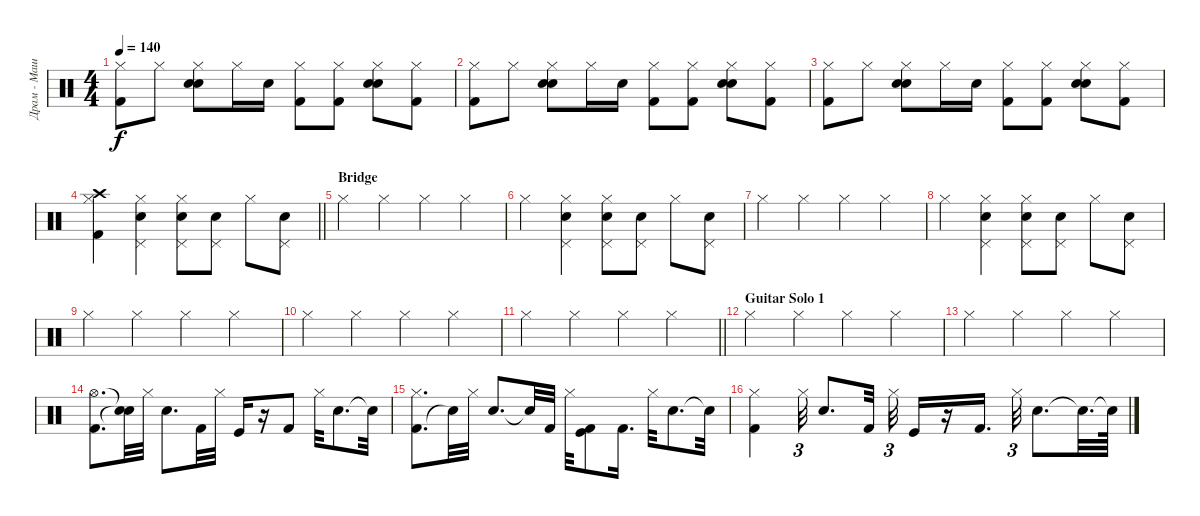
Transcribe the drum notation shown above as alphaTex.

\track ("Драм - Машина" "Драм - Маш") {instrument percussion}
\staff {score}
\articulation defaults
\ts (4 4)
\tempo 140
\clef neutral
\ks c
("Kick (hit) 2" "Hi-Hat (closed)").8{dy f} "Hi-Hat (closed)".8 ("Hand Clap (hit)" "Snare (hit) 2" "Hi-Hat (closed)").8 "Hi-Hat (closed)".16 "Snare (hit) 2".16 ("Kick (hit) 2" "Hi-Hat (closed)").8 ("Hi-Hat (closed)" "Kick (hit) 2").8 ("Hand Clap (hit)" "Snare (hit) 2" "Hi-Hat (closed)").8 ("Hi-Hat (closed)" "Kick (hit) 2").8 |
("Kick (hit) 2" "Hi-Hat (closed)").8 "Hi-Hat (closed)".8 ("Hand Clap (hit)" "Snare (hit) 2" "Hi-Hat (closed)").8 "Hi-Hat (closed)".16 "Snare (hit) 2".16 ("Kick (hit) 2" "Hi-Hat (closed)").8 ("Hi-Hat (closed)" "Kick (hit) 2").8 ("Hand Clap (hit)" "Snare (hit) 2" "Hi-Hat (closed)").8 ("Hi-Hat (closed)" "Kick (hit) 2").8 |
("Kick (hit) 2" "Hi-Hat (closed)").8 "Hi-Hat (closed)".8 ("Hand Clap (hit)" "Snare (hit) 2" "Hi-Hat (closed)").8 "Hi-Hat (closed)".16 "Snare (hit) 2".16 ("Kick (hit) 2" "Hi-Hat (closed)").8 ("Hi-Hat (closed)" "Kick (hit) 2").8 ("Hand Clap (hit)" "Snare (hit) 2" "Hi-Hat (closed)").8 ("Hi-Hat (closed)" "Kick (hit) 2").8 |
\barLineRight lightlight
("Hi-Hat (closed)" "Crash high (hit)" "Kick (hit) 2").4 ("Hi-Hat (closed)" "Pedal Hi-Hat (hit)" "Snare (hit) 2").4 ("Hi-Hat (closed)" "Pedal Hi-Hat (hit)" "Snare (hit) 2").8 ("Pedal Hi-Hat (hit)" "Snare (hit) 2").8 "Hi-Hat (closed)".8 ("Pedal Hi-Hat (hit)" "Snare (hit) 2").8 |
\section ("" "Bridge")
"Hi-Hat (closed)".4 "Hi-Hat (closed)".4 "Hi-Hat (closed)".4 "Hi-Hat (closed)".4 |
"Hi-Hat (closed)".4 ("Hi-Hat (closed)" "Pedal Hi-Hat (hit)" "Snare (hit) 2").4 ("Hi-Hat (closed)" "Pedal Hi-Hat (hit)" "Snare (hit) 2").8 ("Pedal Hi-Hat (hit)" "Snare (hit) 2").8 "Hi-Hat (closed)".8 ("Pedal Hi-Hat (hit)" "Snare (hit) 2").8 |
"Hi-Hat (closed)".4 "Hi-Hat (closed)".4 "Hi-Hat (closed)".4 "Hi-Hat (closed)".4 |
"Hi-Hat (closed)".4 ("Hi-Hat (closed)" "Pedal Hi-Hat (hit)" "Snare (hit) 2").4 ("Hi-Hat (closed)" "Pedal Hi-Hat (hit)" "Snare (hit) 2").8 ("Pedal Hi-Hat (hit)" "Snare (hit) 2").8 "Hi-Hat (closed)".8 ("Pedal Hi-Hat (hit)" "Snare (hit) 2").8 |
"Hi-Hat (closed)".4 "Hi-Hat (closed)".4 "Hi-Hat (closed)".4 "Hi-Hat (closed)".4 |
"Hi-Hat (closed)".4 "Hi-Hat (closed)".4 "Hi-Hat (closed)".4 "Hi-Hat (closed)".4 |
\barLineRight lightlight "Hi-Hat (closed)".4 "Hi-Hat (closed)".4 "Hi-Hat (closed)".4 "Hi-Hat (closed)".4
|
\section ("" "Guitar Solo 1")
"Hi-Hat (closed)".4 "Hi-Hat (closed)".4 "Hi-Hat (closed)".4 "Hi-Hat (closed)".4 |
"Hi-Hat (closed)".4 "Hi-Hat (closed)".4 "Hi-Hat (closed)".4 "Hi-Hat (closed)".4 |
("Hi-Hat (open)" "Kick (hit) 2").8{d} ("Snare (hit)"{t} "Snare (hit)"{t}).32 "Hi-Hat (closed)".32 "Electric Snare (hit)".8{d} "Kick (hit) 2".32 "Hi-Hat (closed)".32 "Kick (hit)".16 r.16 "Kick (hit) 2".8 "Hi-Hat (closed)".32 "Electric Snare (hit)".8{d} "Snare (hit)"{t}.32 |
("Kick (hit) 2" "Hi-Hat (closed)").8{d} "Snare (hit)"{t}.32 "Hi-Hat (closed)".32 "Electric Snare (hit)".8{d} "Snare (hit)"{t}.32 "Kick (hit) 2".32 "Hi-Hat (closed)".32 ("Kick (hit) 2" "Kick (hit)").8 "Kick (hit) 2".16{d} "Hi-Hat (closed)".32 "Electric Snare (hit)".8{d} "Snare (hit)"{t}.32 |
("Kick (hit) 2" "Hi-Hat (closed)").4 "Hi-Hat (closed)".32{tu (3 2)} "Electric Snare (hit)".8{d} "Kick (hit) 2".32 "Hi-Hat (closed)".32{tu (3 2)} "Kick (hit)".16 r.16 "Kick (hit) 2".16{d} "Hi-Hat (closed)".32{tu (3 2)} "Electric Snare (hit)".8{d} "Snare (hit)"{t}.32{d} "Snare (hit)"{t}.64
